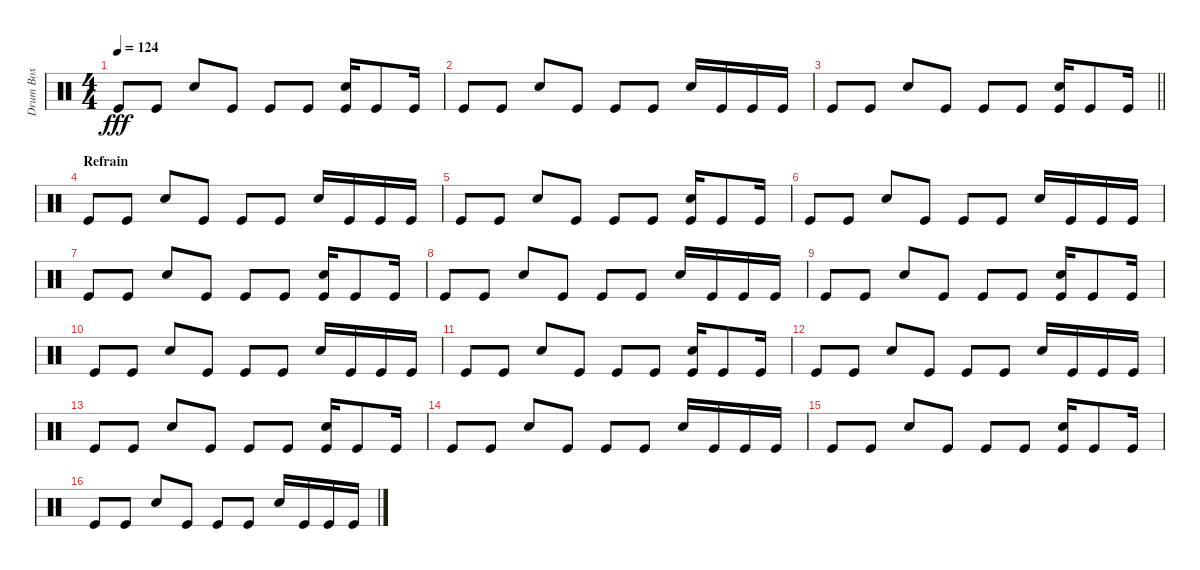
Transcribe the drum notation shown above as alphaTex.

\track ("Drum Box" "Drum Box") {instrument percussion}
\staff {score}
\articulation defaults
\ts (4 4)
\tempo 124
\clef neutral
\ks c "Kick (hit)".8{dy fff} "Kick (hit)".8 "Snare (hit) 2".8 "Kick (hit)".8 "Kick (hit)".8 "Kick (hit)".8
("Snare (hit) 2" "Kick (hit)").16 "Kick (hit)".8 "Kick (hit)".16 |
"Kick (hit)".8 "Kick (hit)".8 "Snare (hit) 2".8 "Kick (hit)".8 "Kick (hit)".8 "Kick (hit)".8 "Snare (hit) 2".16 "Kick (hit)".16 "Kick (hit)".16 "Kick (hit)".16 |
\barLineRight lightlight "Kick (hit)".8 "Kick (hit)".8 "Snare (hit) 2".8 "Kick (hit)".8 "Kick (hit)".8 "Kick (hit)".8
("Snare (hit) 2" "Kick (hit)").16 "Kick (hit)".8 "Kick (hit)".16 |
\section ("" "Refrain")
"Kick (hit)".8 "Kick (hit)".8 "Snare (hit) 2".8 "Kick (hit)".8 "Kick (hit)".8 "Kick (hit)".8 "Snare (hit) 2".16 "Kick (hit)".16 "Kick (hit)".16 "Kick (hit)".16 |
"Kick (hit)".8 "Kick (hit)".8 "Snare (hit) 2".8 "Kick (hit)".8 "Kick (hit)".8 "Kick (hit)".8 ("Snare (hit) 2" "Kick (hit)").16 "Kick (hit)".8 "Kick (hit)".16 |
"Kick (hit)".8 "Kick (hit)".8 "Snare (hit) 2".8 "Kick (hit)".8 "Kick (hit)".8 "Kick (hit)".8 "Snare (hit) 2".16 "Kick (hit)".16 "Kick (hit)".16 "Kick (hit)".16 |
"Kick (hit)".8 "Kick (hit)".8 "Snare (hit) 2".8 "Kick (hit)".8 "Kick (hit)".8 "Kick (hit)".8 ("Snare (hit) 2" "Kick (hit)").16 "Kick (hit)".8 "Kick (hit)".16 |
"Kick (hit)".8 "Kick (hit)".8 "Snare (hit) 2".8 "Kick (hit)".8 "Kick (hit)".8 "Kick (hit)".8 "Snare (hit) 2".16 "Kick (hit)".16 "Kick (hit)".16 "Kick (hit)".16 |
"Kick (hit)".8 "Kick (hit)".8 "Snare (hit) 2".8 "Kick (hit)".8 "Kick (hit)".8 "Kick (hit)".8 ("Snare (hit) 2" "Kick (hit)").16 "Kick (hit)".8 "Kick (hit)".16 |
"Kick (hit)".8 "Kick (hit)".8 "Snare (hit) 2".8 "Kick (hit)".8 "Kick (hit)".8 "Kick (hit)".8 "Snare (hit) 2".16 "Kick (hit)".16 "Kick (hit)".16 "Kick (hit)".16 |
"Kick (hit)".8 "Kick (hit)".8 "Snare (hit) 2".8 "Kick (hit)".8 "Kick (hit)".8 "Kick (hit)".8 ("Snare (hit) 2" "Kick (hit)").16 "Kick (hit)".8 "Kick (hit)".16 |
"Kick (hit)".8 "Kick (hit)".8 "Snare (hit) 2".8 "Kick (hit)".8 "Kick (hit)".8 "Kick (hit)".8 "Snare (hit) 2".16 "Kick (hit)".16 "Kick (hit)".16 "Kick (hit)".16 |
"Kick (hit)".8 "Kick (hit)".8 "Snare (hit) 2".8 "Kick (hit)".8 "Kick (hit)".8 "Kick (hit)".8 ("Snare (hit) 2" "Kick (hit)").16 "Kick (hit)".8 "Kick (hit)".16 |
"Kick (hit)".8 "Kick (hit)".8 "Snare (hit) 2".8 "Kick (hit)".8 "Kick (hit)".8 "Kick (hit)".8 "Snare (hit) 2".16 "Kick (hit)".16 "Kick (hit)".16 "Kick (hit)".16 |
"Kick (hit)".8 "Kick (hit)".8 "Snare (hit) 2".8 "Kick (hit)".8 "Kick (hit)".8 "Kick (hit)".8 ("Snare (hit) 2" "Kick (hit)").16 "Kick (hit)".8 "Kick (hit)".16 |
"Kick (hit)".8 "Kick (hit)".8 "Snare (hit) 2".8 "Kick (hit)".8 "Kick (hit)".8 "Kick (hit)".8 "Snare (hit) 2".16 "Kick (hit)".16 "Kick (hit)".16 "Kick (hit)".16
